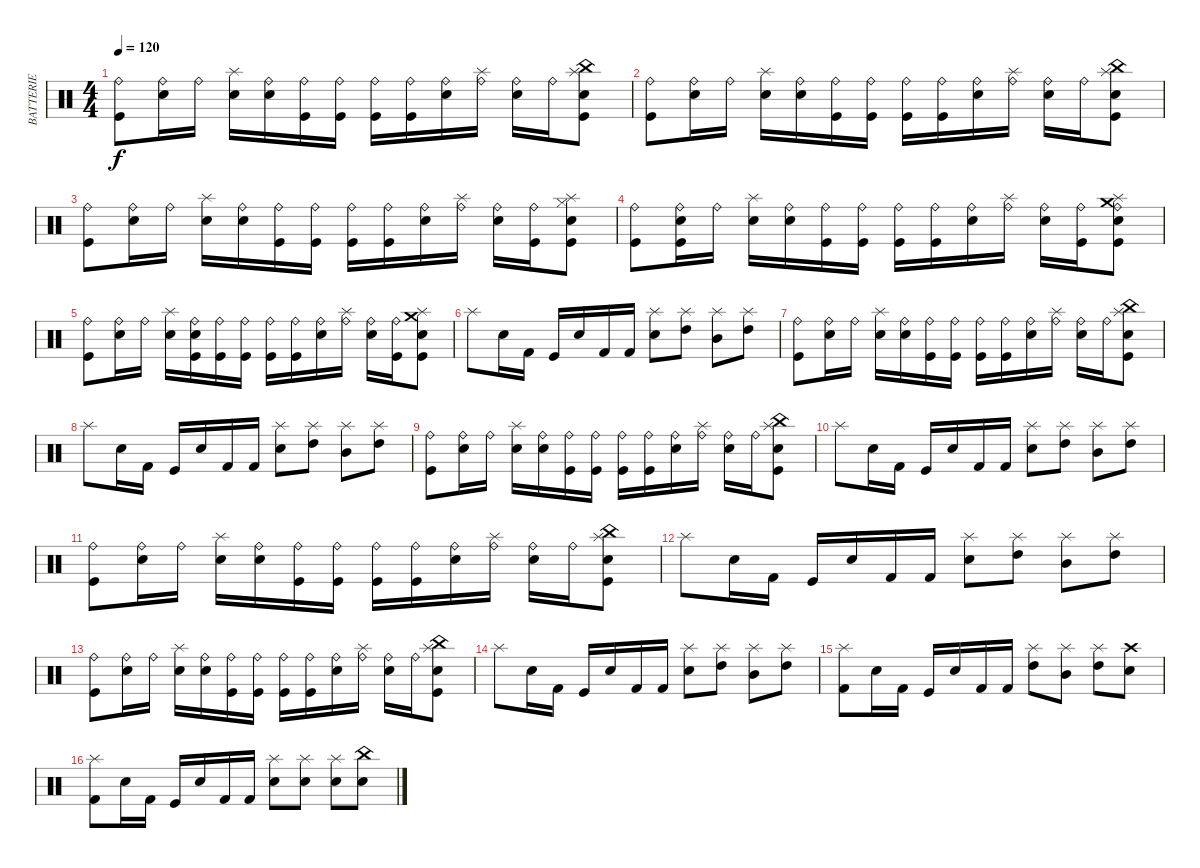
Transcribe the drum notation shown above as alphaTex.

\track ("BATTERIE" "BATTERIE") {instrument percussion}
\staff {score}
\articulation defaults
\ts (4 4)
\tempo 120
\clef neutral
\ks c
("Ride (bell)" "Kick (hit)").8{dy f} ("Snare (hit) 2" "Ride (bell)").16 "Ride (bell)".16 ("Snare (hit) 2" "Splash (hit)").16 ("Snare (hit) 2" "Ride (bell)").16 ("Ride (bell)" "Kick (hit)").16 ("Ride (bell)" "Kick (hit)").16 ("Ride (bell)" "Kick (hit)").16 ("Ride (bell)" "Kick (hit)").16 ("Snare (hit) 2" "Ride (bell)").16 ("Ride (bell)" "Splash (hit)").16 ("Snare (hit) 2" "Ride (bell)").16 "Ride (bell)".16 ("China (hit)" "Splash (hit)" "Snare (hit) 2" "Kick (hit)").8 |
("Ride (bell)" "Kick (hit)").8 ("Snare (hit) 2" "Ride (bell)").16 "Ride (bell)".16 ("Snare (hit) 2" "Splash (hit)").16 ("Snare (hit) 2" "Ride (bell)").16 ("Ride (bell)" "Kick (hit)").16 ("Ride (bell)" "Kick (hit)").16 ("Ride (bell)" "Kick (hit)").16 ("Ride (bell)" "Kick (hit)").16 ("Snare (hit) 2" "Ride (bell)").16 ("Ride (bell)" "Splash (hit)").16 ("Snare (hit) 2" "Ride (bell)").16 "Ride (bell)".16 ("China (hit)" "Splash (hit)" "Snare (hit) 2" "Kick (hit)").8 |
("Ride (bell)" "Kick (hit)").8 ("Snare (hit) 2" "Ride (bell)").16 "Ride (bell)".16 ("Snare (hit) 2" "Splash (hit)").16 ("Snare (hit) 2" "Ride (bell)").16 ("Ride (bell)" "Kick (hit)").16 ("Ride (bell)" "Kick (hit)").16 ("Ride (bell)" "Kick (hit)").16 ("Ride (bell)" "Kick (hit)").16 ("Snare (hit) 2" "Ride (bell)").16 ("Ride (bell)" "Splash (hit)").16 ("Snare (hit) 2" "Ride (bell)").16 ("Ride (bell)" "Kick (hit)").16 ("Hi-Hat (closed)" "Splash (hit)" "Snare (hit) 2" "Kick (hit)").8 |
("Ride (bell)" "Kick (hit)").8 ("Snare (hit) 2" "Ride (bell)" "Kick (hit)").16 "Ride (bell)".16 ("Snare (hit) 2" "Splash (hit)").16 ("Snare (hit) 2" "Ride (bell)").16 ("Ride (bell)" "Kick (hit)").16 ("Ride (bell)" "Kick (hit)").16 ("Ride (bell)" "Kick (hit)").16 ("Ride (bell)" "Kick (hit)").16 ("Snare (hit) 2" "Ride (bell)").16 ("Ride (bell)" "Splash (hit)").16 ("Snare (hit) 2" "Ride (bell)").16 ("Ride (bell)" "Kick (hit)").16 ("Crash medium (hit)" "Ride (bell)" "Splash (hit)" "Snare (hit) 2" "Kick (hit)").8 |
("Ride (bell)" "Kick (hit)").8 ("Snare (hit) 2" "Ride (bell)").16 "Ride (bell)".16 ("Snare (hit) 2" "Splash (hit)").16 ("Snare (hit) 2" "Ride (bell)" "Kick (hit)").16 ("Ride (bell)" "Kick (hit)").16 ("Ride (bell)" "Kick (hit)").16 ("Ride (bell)" "Kick (hit)").16 ("Ride (bell)" "Kick (hit)").16 ("Snare (hit) 2" "Ride (bell)").16 ("Ride (bell)" "Splash (hit)").16 ("Snare (hit) 2" "Ride (bell)").16 ("Ride (bell)" "Kick (hit)").16 ("Crash medium (hit)" "Splash (hit)" "Snare (hit) 2" "Kick (hit)").8 |
"Splash (hit)".8 "Snare (hit) 2".16 "Kick (hit) 2".16 "Kick (hit)".16 "Snare (hit) 2".16 "Kick (hit) 2".16 "Kick (hit) 2".16 ("Splash (hit)" "Snare (hit) 2").8 ("Splash (hit)" "High Tom (hit)").8 ("Splash (hit)" "Mid Tom (hit)").8 ("Splash (hit)" "High Tom (hit)").8 |
("Ride (bell)" "Kick (hit)").8 ("Snare (hit) 2" "Ride (bell)").16 "Ride (bell)".16 ("Snare (hit) 2" "Splash (hit)").16 ("Snare (hit) 2" "Ride (bell)").16 ("Ride (bell)" "Kick (hit)").16 ("Ride (bell)" "Kick (hit)").16 ("Ride (bell)" "Kick (hit)").16 ("Ride (bell)" "Kick (hit)").16 ("Snare (hit) 2" "Ride (bell)").16 ("Ride (bell)" "Splash (hit)").16 ("Snare (hit) 2" "Ride (bell)").16 "Ride (bell)".16 ("China (hit)" "Splash (hit)" "Snare (hit) 2" "Kick (hit)").8 |
"Splash (hit)".8 "Snare (hit) 2".16 "Kick (hit) 2".16 "Kick (hit)".16 "Snare (hit) 2".16 "Kick (hit) 2".16 "Kick (hit) 2".16 ("Splash (hit)" "Snare (hit) 2").8 ("Splash (hit)" "High Tom (hit)").8 ("Splash (hit)" "Mid Tom (hit)").8 ("Splash (hit)" "High Tom (hit)").8 |
("Ride (bell)" "Kick (hit)").8 ("Snare (hit) 2" "Ride (bell)").16 "Ride (bell)".16 ("Snare (hit) 2" "Splash (hit)").16 ("Snare (hit) 2" "Ride (bell)").16 ("Ride (bell)" "Kick (hit)").16 ("Ride (bell)" "Kick (hit)").16 ("Ride (bell)" "Kick (hit)").16 ("Ride (bell)" "Kick (hit)").16 ("Snare (hit) 2" "Ride (bell)").16 ("Ride (bell)" "Splash (hit)").16 ("Snare (hit) 2" "Ride (bell)").16 "Ride (bell)".16 ("China (hit)" "Splash (hit)" "Snare (hit) 2" "Kick (hit)").8 |
"Splash (hit)".8 "Snare (hit) 2".16 "Kick (hit) 2".16 "Kick (hit)".16 "Snare (hit) 2".16 "Kick (hit) 2".16 "Kick (hit) 2".16 ("Splash (hit)" "Snare (hit) 2").8 ("Splash (hit)" "High Tom (hit)").8 ("Splash (hit)" "Mid Tom (hit)").8 ("Splash (hit)" "High Tom (hit)").8 |
("Ride (bell)" "Kick (hit)").8 ("Snare (hit) 2" "Ride (bell)").16 "Ride (bell)".16 ("Snare (hit) 2" "Splash (hit)").16 ("Snare (hit) 2" "Ride (bell)").16 ("Ride (bell)" "Kick (hit)").16 ("Ride (bell)" "Kick (hit)").16 ("Ride (bell)" "Kick (hit)").16 ("Ride (bell)" "Kick (hit)").16 ("Snare (hit) 2" "Ride (bell)").16 ("Ride (bell)" "Splash (hit)").16 ("Snare (hit) 2" "Ride (bell)").16 "Ride (bell)".16 ("China (hit)" "Splash (hit)" "Snare (hit) 2" "Kick (hit)").8 |
"Splash (hit)".8 "Snare (hit) 2".16 "Kick (hit) 2".16 "Kick (hit)".16 "Snare (hit) 2".16 "Kick (hit) 2".16 "Kick (hit) 2".16 ("Splash (hit)" "Snare (hit) 2").8 ("Splash (hit)" "High Tom (hit)").8 ("Splash (hit)" "Mid Tom (hit)").8 ("Splash (hit)" "High Tom (hit)").8 |
("Ride (bell)" "Kick (hit)").8 ("Snare (hit) 2" "Ride (bell)").16 "Ride (bell)".16 ("Snare (hit) 2" "Splash (hit)").16 ("Snare (hit) 2" "Ride (bell)").16 ("Ride (bell)" "Kick (hit)").16 ("Ride (bell)" "Kick (hit)").16 ("Ride (bell)" "Kick (hit)").16 ("Ride (bell)" "Kick (hit)").16 ("Snare (hit) 2" "Ride (bell)").16 ("Ride (bell)" "Splash (hit)").16 ("Snare (hit) 2" "Ride (bell)").16 "Ride (bell)".16 ("China (hit)" "Splash (hit)" "Snare (hit) 2" "Kick (hit)").8 |
"Splash (hit)".8 "Snare (hit) 2".16 "Kick (hit) 2".16 "Kick (hit)".16 "Snare (hit) 2".16 "Kick (hit) 2".16 "Kick (hit) 2".16 ("Splash (hit)" "Snare (hit) 2").8 ("Splash (hit)" "High Tom (hit)").8 ("Splash (hit)" "Mid Tom (hit)").8 ("Splash (hit)" "High Tom (hit)").8 |
("Splash (hit)" "Kick (hit) 2").8 "Snare (hit) 2".16 "Kick (hit) 2".16 "Kick (hit)".16 "Snare (hit) 2".16 "Kick (hit) 2".16 "Kick (hit) 2".16 ("Splash (hit)" "High Tom (hit)").8 ("Splash (hit)" "Mid Tom (hit)").8 ("Splash (hit)" "High Tom (hit)").8 ("Crash high (hit)" "Snare (hit) 2").8 |
("Splash (hit)" "Kick (hit) 2").8 "Snare (hit) 2".16 "Kick (hit) 2".16 "Kick (hit)".16 "Snare (hit) 2".16 "Kick (hit) 2".16 "Kick (hit) 2".16 ("Splash (hit)" "Snare (hit) 2").8 ("Splash (hit)" "Snare (hit) 2").8 ("Splash (hit)" "Snare (hit) 2").8 ("China (hit)" "Snare (hit) 2").8
